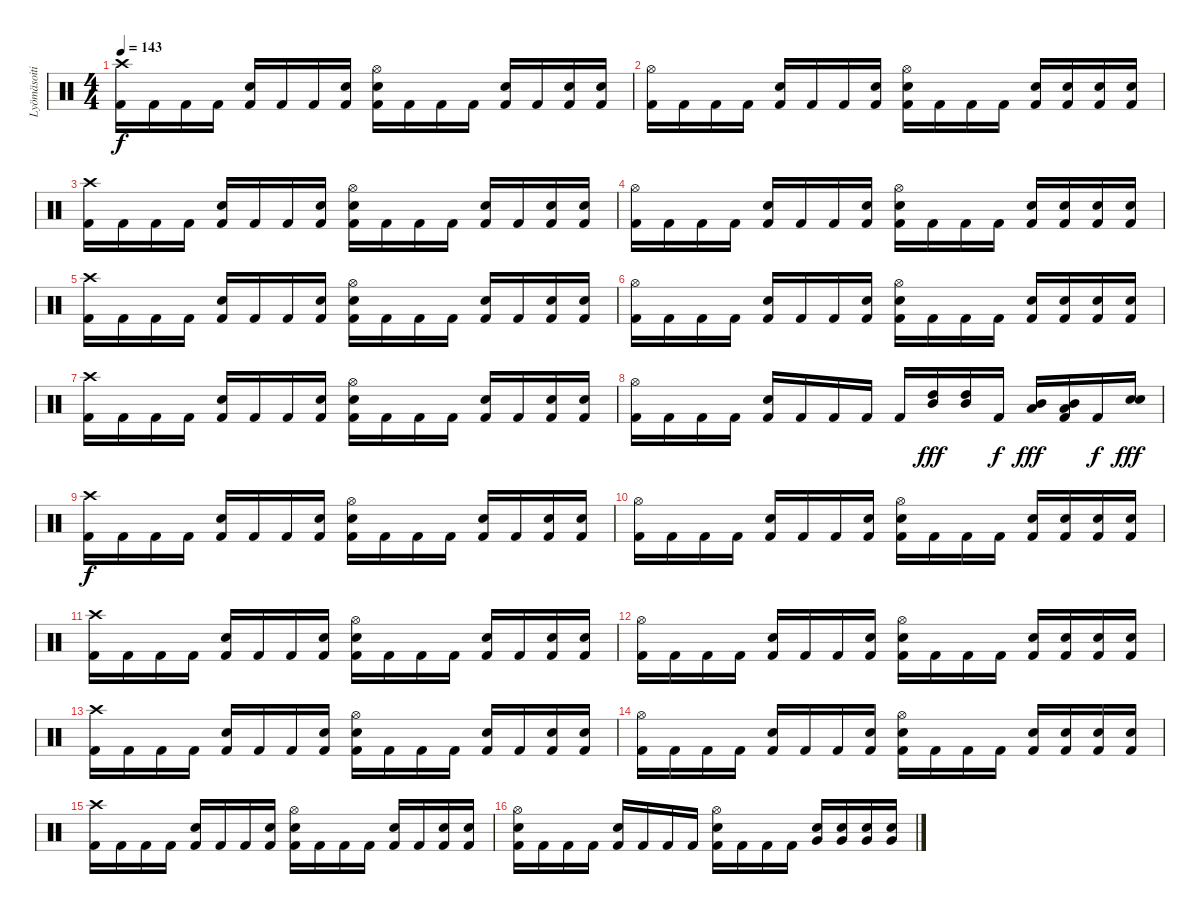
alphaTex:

\track ("Lyömäsoitin" "Lyömäsoiti") {instrument percussion}
\staff {score}
\articulation defaults
\ts (4 4)
\tempo 143
\clef neutral
\ks c
("Kick (hit) 2" "Crash high (hit)").16{dy f} "Kick (hit) 2".16 "Kick (hit) 2".16 "Kick (hit) 2".16 ("Kick (hit) 2" "Snare (hit) 2").16 "Kick (hit) 2".16 "Kick (hit) 2".16 ("Kick (hit) 2" "Snare (hit) 2").16 ("Kick (hit) 2" "Snare (hit) 2" "Hi-Hat (open)").16 "Kick (hit) 2".16 "Kick (hit) 2".16 "Kick (hit) 2".16 ("Kick (hit) 2" "Snare (hit) 2").16 "Kick (hit) 2".16 ("Kick (hit) 2" "Snare (hit) 2").16 ("Kick (hit) 2" "Snare (hit) 2").16 |
("Kick (hit) 2" "Hi-Hat (open)").16 "Kick (hit) 2".16 "Kick (hit) 2".16 "Kick (hit) 2".16 ("Kick (hit) 2" "Snare (hit) 2").16 "Kick (hit) 2".16 "Kick (hit) 2".16 ("Kick (hit) 2" "Snare (hit) 2").16 ("Kick (hit) 2" "Snare (hit) 2" "Hi-Hat (open)").16 "Kick (hit) 2".16 "Kick (hit) 2".16 "Kick (hit) 2".16 ("Kick (hit) 2" "Snare (hit) 2").16 ("Kick (hit) 2" "Snare (hit) 2").16 ("Kick (hit) 2" "Snare (hit) 2").16 ("Kick (hit) 2" "Snare (hit) 2").16 |
("Kick (hit) 2" "Crash high (hit)").16 "Kick (hit) 2".16 "Kick (hit) 2".16 "Kick (hit) 2".16 ("Kick (hit) 2" "Snare (hit) 2").16 "Kick (hit) 2".16 "Kick (hit) 2".16 ("Kick (hit) 2" "Snare (hit) 2").16 ("Kick (hit) 2" "Snare (hit) 2" "Hi-Hat (open)").16 "Kick (hit) 2".16 "Kick (hit) 2".16 "Kick (hit) 2".16 ("Kick (hit) 2" "Snare (hit) 2").16 "Kick (hit) 2".16 ("Kick (hit) 2" "Snare (hit) 2").16 ("Kick (hit) 2" "Snare (hit) 2").16 |
("Kick (hit) 2" "Hi-Hat (open)").16 "Kick (hit) 2".16 "Kick (hit) 2".16 "Kick (hit) 2".16 ("Kick (hit) 2" "Snare (hit) 2").16 "Kick (hit) 2".16 "Kick (hit) 2".16 ("Kick (hit) 2" "Snare (hit) 2").16 ("Kick (hit) 2" "Snare (hit) 2" "Hi-Hat (open)").16 "Kick (hit) 2".16 "Kick (hit) 2".16 "Kick (hit) 2".16 ("Kick (hit) 2" "Snare (hit) 2").16 ("Kick (hit) 2" "Snare (hit) 2").16 ("Kick (hit) 2" "Snare (hit) 2").16 ("Kick (hit) 2" "Snare (hit) 2").16 |
("Kick (hit) 2" "Crash high (hit)").16 "Kick (hit) 2".16 "Kick (hit) 2".16 "Kick (hit) 2".16 ("Kick (hit) 2" "Snare (hit) 2").16 "Kick (hit) 2".16 "Kick (hit) 2".16 ("Kick (hit) 2" "Snare (hit) 2").16 ("Kick (hit) 2" "Snare (hit) 2" "Hi-Hat (open)").16 "Kick (hit) 2".16 "Kick (hit) 2".16 "Kick (hit) 2".16 ("Kick (hit) 2" "Snare (hit) 2").16 "Kick (hit) 2".16 ("Kick (hit) 2" "Snare (hit) 2").16 ("Kick (hit) 2" "Snare (hit) 2").16 |
("Kick (hit) 2" "Hi-Hat (open)").16 "Kick (hit) 2".16 "Kick (hit) 2".16 "Kick (hit) 2".16 ("Kick (hit) 2" "Snare (hit) 2").16 "Kick (hit) 2".16 "Kick (hit) 2".16 ("Kick (hit) 2" "Snare (hit) 2").16 ("Kick (hit) 2" "Snare (hit) 2" "Hi-Hat (open)").16 "Kick (hit) 2".16 "Kick (hit) 2".16 "Kick (hit) 2".16 ("Kick (hit) 2" "Snare (hit) 2").16 ("Kick (hit) 2" "Snare (hit) 2").16 ("Kick (hit) 2" "Snare (hit) 2").16 ("Kick (hit) 2" "Snare (hit) 2").16 |
("Kick (hit) 2" "Crash high (hit)").16 "Kick (hit) 2".16 "Kick (hit) 2".16 "Kick (hit) 2".16 ("Kick (hit) 2" "Snare (hit) 2").16 "Kick (hit) 2".16 "Kick (hit) 2".16 ("Kick (hit) 2" "Snare (hit) 2").16 ("Kick (hit) 2" "Snare (hit) 2" "Hi-Hat (open)").16 "Kick (hit) 2".16 "Kick (hit) 2".16 "Kick (hit) 2".16 ("Kick (hit) 2" "Snare (hit) 2").16 "Kick (hit) 2".16 ("Kick (hit) 2" "Snare (hit) 2").16 ("Kick (hit) 2" "Snare (hit) 2").16 |
("Kick (hit) 2" "Hi-Hat (open)").16 "Kick (hit) 2".16 "Kick (hit) 2".16 "Kick (hit) 2".16 ("Kick (hit) 2" "Snare (hit) 2").16 "Kick (hit) 2".16 "Kick (hit) 2".16 "Kick (hit) 2".16 "Kick (hit) 2".16 ("High Tom (hit)" "Mid Tom (hit)").16{dy fff} ("High Tom (hit)" "Mid Tom (hit)").16 "Kick (hit) 2".16{dy f} ("Mid Tom (hit)" "Low Tom (hit)").16{dy fff} ("Kick (hit) 2" "Mid Tom (hit)" "Low Tom (hit)").16 "Kick (hit) 2".16{dy f} ("Snare (hit) 2" "Electric Snare (hit)").16{dy fff} |
("Kick (hit) 2" "Crash high (hit)").16{dy f} "Kick (hit) 2".16 "Kick (hit) 2".16 "Kick (hit) 2".16 ("Kick (hit) 2" "Snare (hit) 2").16 "Kick (hit) 2".16 "Kick (hit) 2".16 ("Kick (hit) 2" "Snare (hit) 2").16 ("Kick (hit) 2" "Snare (hit) 2" "Hi-Hat (open)").16 "Kick (hit) 2".16 "Kick (hit) 2".16 "Kick (hit) 2".16 ("Kick (hit) 2" "Snare (hit) 2").16 "Kick (hit) 2".16 ("Kick (hit) 2" "Snare (hit) 2").16 ("Kick (hit) 2" "Snare (hit) 2").16 |
("Kick (hit) 2" "Hi-Hat (open)").16 "Kick (hit) 2".16 "Kick (hit) 2".16 "Kick (hit) 2".16 ("Kick (hit) 2" "Snare (hit) 2").16 "Kick (hit) 2".16 "Kick (hit) 2".16 ("Kick (hit) 2" "Snare (hit) 2").16 ("Kick (hit) 2" "Snare (hit) 2" "Hi-Hat (open)").16 "Kick (hit) 2".16 "Kick (hit) 2".16 "Kick (hit) 2".16 ("Kick (hit) 2" "Snare (hit) 2").16 ("Kick (hit) 2" "Snare (hit) 2").16 ("Kick (hit) 2" "Snare (hit) 2").16 ("Kick (hit) 2" "Snare (hit) 2").16 |
("Kick (hit) 2" "Crash high (hit)").16 "Kick (hit) 2".16 "Kick (hit) 2".16 "Kick (hit) 2".16 ("Kick (hit) 2" "Snare (hit) 2").16 "Kick (hit) 2".16 "Kick (hit) 2".16 ("Kick (hit) 2" "Snare (hit) 2").16 ("Kick (hit) 2" "Snare (hit) 2" "Hi-Hat (open)").16 "Kick (hit) 2".16 "Kick (hit) 2".16 "Kick (hit) 2".16 ("Kick (hit) 2" "Snare (hit) 2").16 "Kick (hit) 2".16 ("Kick (hit) 2" "Snare (hit) 2").16 ("Kick (hit) 2" "Snare (hit) 2").16 |
("Kick (hit) 2" "Hi-Hat (open)").16 "Kick (hit) 2".16 "Kick (hit) 2".16 "Kick (hit) 2".16 ("Kick (hit) 2" "Snare (hit) 2").16 "Kick (hit) 2".16 "Kick (hit) 2".16 ("Kick (hit) 2" "Snare (hit) 2").16 ("Kick (hit) 2" "Snare (hit) 2" "Hi-Hat (open)").16 "Kick (hit) 2".16 "Kick (hit) 2".16 "Kick (hit) 2".16 ("Kick (hit) 2" "Snare (hit) 2").16 ("Kick (hit) 2" "Snare (hit) 2").16 ("Kick (hit) 2" "Snare (hit) 2").16 ("Kick (hit) 2" "Snare (hit) 2").16 |
("Kick (hit) 2" "Crash high (hit)").16 "Kick (hit) 2".16 "Kick (hit) 2".16 "Kick (hit) 2".16 ("Kick (hit) 2" "Snare (hit) 2").16 "Kick (hit) 2".16 "Kick (hit) 2".16 ("Kick (hit) 2" "Snare (hit) 2").16 ("Kick (hit) 2" "Snare (hit) 2" "Hi-Hat (open)").16 "Kick (hit) 2".16 "Kick (hit) 2".16 "Kick (hit) 2".16 ("Kick (hit) 2" "Snare (hit) 2").16 "Kick (hit) 2".16 ("Kick (hit) 2" "Snare (hit) 2").16 ("Kick (hit) 2" "Snare (hit) 2").16 |
("Kick (hit) 2" "Hi-Hat (open)").16 "Kick (hit) 2".16 "Kick (hit) 2".16 "Kick (hit) 2".16 ("Kick (hit) 2" "Snare (hit) 2").16 "Kick (hit) 2".16 "Kick (hit) 2".16 ("Kick (hit) 2" "Snare (hit) 2").16 ("Kick (hit) 2" "Snare (hit) 2" "Hi-Hat (open)").16 "Kick (hit) 2".16 "Kick (hit) 2".16 "Kick (hit) 2".16 ("Kick (hit) 2" "Snare (hit) 2").16 ("Kick (hit) 2" "Snare (hit) 2").16 ("Kick (hit) 2" "Snare (hit) 2").16 ("Kick (hit) 2" "Snare (hit) 2").16 |
("Kick (hit) 2" "Crash high (hit)").16 "Kick (hit) 2".16 "Kick (hit) 2".16 "Kick (hit) 2".16 ("Kick (hit) 2" "Snare (hit) 2").16 "Kick (hit) 2".16 "Kick (hit) 2".16 ("Kick (hit) 2" "Snare (hit) 2").16 ("Kick (hit) 2" "Snare (hit) 2" "Hi-Hat (open)").16 "Kick (hit) 2".16 "Kick (hit) 2".16 "Kick (hit) 2".16 ("Kick (hit) 2" "Snare (hit) 2").16 "Kick (hit) 2".16 ("Kick (hit) 2" "Snare (hit) 2").16 ("Kick (hit) 2" "Snare (hit) 2").16 |
("Kick (hit) 2" "Snare (hit) 2" "Hi-Hat (open)").16 "Kick (hit) 2".16 "Kick (hit) 2".16 "Kick (hit) 2".16 ("Kick (hit) 2" "Snare (hit) 2").16 "Kick (hit) 2".16 "Kick (hit) 2".16 "Kick (hit) 2".16 ("Kick (hit) 2" "Snare (hit) 2" "Hi-Hat (open)").16 "Kick (hit) 2".16 "Kick (hit) 2".16 "Kick (hit) 2".16 ("Snare (hit) 2" "Very Low Tom (hit)").16 ("Snare (hit) 2" "Very Low Tom (hit)").16 ("Snare (hit) 2" "Very Low Tom (hit)").16 ("Snare (hit) 2" "Very Low Tom (hit)").16
